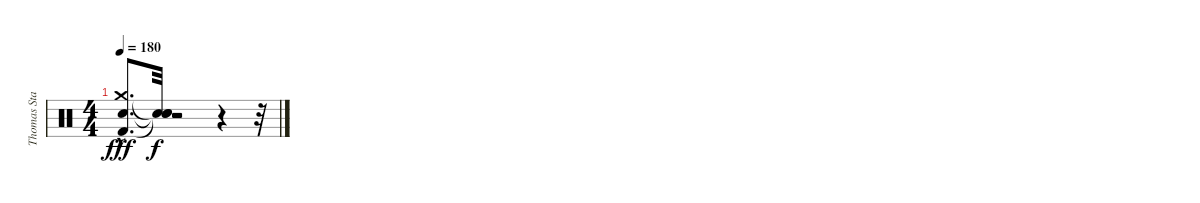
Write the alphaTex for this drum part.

\track ("Thomas Stauch" "Thomas Sta") {instrument percussion}
\staff {score}
\articulation defaults
\ts (4 4)
\tempo 180
\clef neutral
\ks c
("Kick (hit) 2"{hac} "Crash medium (hit)"{hac} "Electric Snare (hit)"{hac}).8{d dy fff} ("Snare (hit)"{t} "Snare (hit)"{t} "Snare (hit)"{t}).32{dy f} r.2 r.4 r.32
